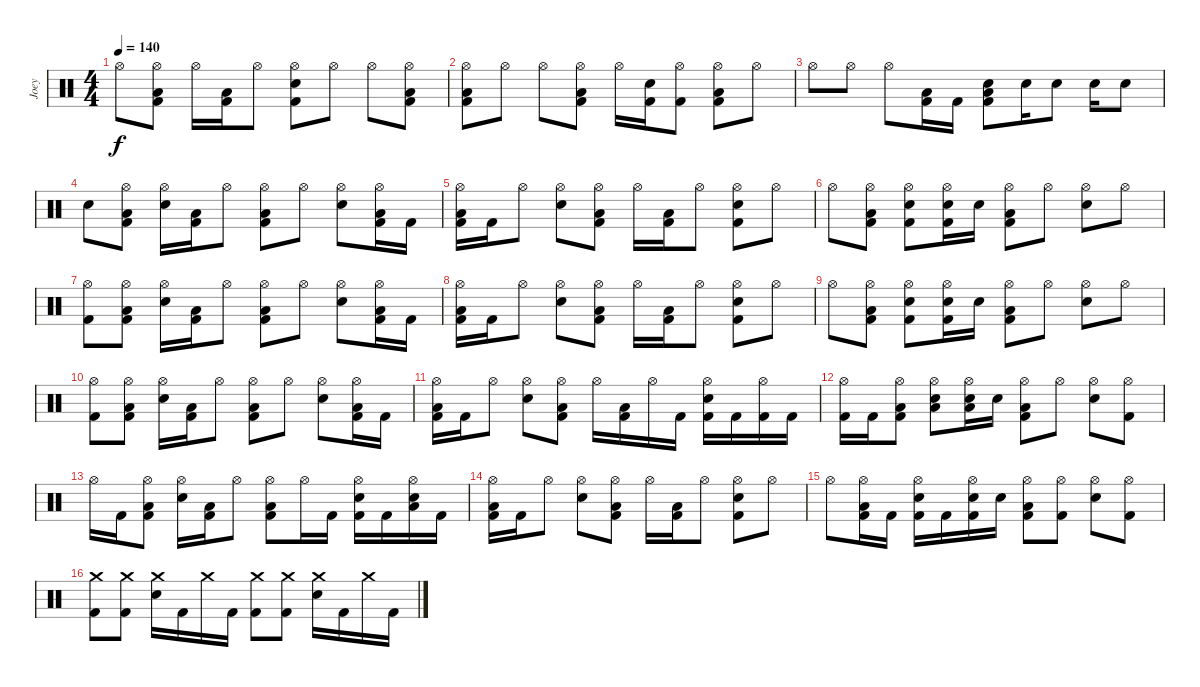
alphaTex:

\track ("Joey" "Joey") {instrument percussion}
\staff {score}
\articulation defaults
\ts (4 4)
\tempo 140
\clef neutral
\ks c "Hi-Hat (open)".8{dy f}
("Hi-Hat (open)" "Low Floor Tom (hit)" "Kick (hit) 2").8 "Hi-Hat (open)".16 ("Low Floor Tom (hit)" "Kick (hit) 2").16 "Hi-Hat (open)".8 ("Hi-Hat (open)" "Electric Snare (hit)" "Kick (hit) 2").8 "Hi-Hat (open)".8 "Hi-Hat (open)".8 ("Hi-Hat (open)" "Low Floor Tom (hit)" "Kick (hit) 2").8 |
("Hi-Hat (open)" "Low Floor Tom (hit)" "Kick (hit) 2").8 "Hi-Hat (open)".8 "Hi-Hat (open)".8 ("Hi-Hat (open)" "Low Floor Tom (hit)" "Kick (hit) 2").8 "Hi-Hat (open)".16 ("Electric Snare (hit)" "Kick (hit) 2").16 ("Hi-Hat (open)" "Kick (hit) 2").8 ("Hi-Hat (open)" "Low Floor Tom (hit)" "Kick (hit) 2").8 "Hi-Hat (open)".8 |
"Hi-Hat (open)".8 "Hi-Hat (open)".8 "Hi-Hat (open)".8 ("Low Floor Tom (hit)" "Kick (hit) 2").16 "Kick (hit) 2".16 ("Electric Snare (hit)" "Low Floor Tom (hit)" "Kick (hit) 2").8 "Electric Snare (hit)".16 "Electric Snare (hit)".8 "Electric Snare (hit)".16 "Electric Snare (hit)".8 |
"Electric Snare (hit)".8 ("Hi-Hat (open)" "Low Floor Tom (hit)" "Kick (hit) 2").8 ("Hi-Hat (open)" "Electric Snare (hit)").16 ("Low Floor Tom (hit)" "Kick (hit) 2").16 "Hi-Hat (open)".8 ("Hi-Hat (open)" "Low Floor Tom (hit)" "Kick (hit) 2").8 "Hi-Hat (open)".8 ("Hi-Hat (open)" "Electric Snare (hit)").8 ("Hi-Hat (open)" "Low Floor Tom (hit)" "Kick (hit) 2").16 "Kick (hit) 2".16 |
("Hi-Hat (open)" "Low Floor Tom (hit)" "Kick (hit) 2").16 "Kick (hit) 2".16 "Hi-Hat (open)".8 ("Hi-Hat (open)" "Electric Snare (hit)").8 ("Hi-Hat (open)" "Low Floor Tom (hit)" "Kick (hit) 2").8 "Hi-Hat (open)".16 ("Low Floor Tom (hit)" "Kick (hit) 2").16 "Hi-Hat (open)".8 ("Hi-Hat (open)" "Electric Snare (hit)" "Kick (hit) 2").8 "Hi-Hat (open)".8 |
"Hi-Hat (open)".8 ("Hi-Hat (open)" "Low Floor Tom (hit)" "Kick (hit) 2").8 ("Hi-Hat (open)" "Electric Snare (hit)" "Kick (hit) 2").8 ("Hi-Hat (open)" "Electric Snare (hit)" "Kick (hit) 2").16 "Electric Snare (hit)".16 ("Hi-Hat (open)" "Low Floor Tom (hit)" "Kick (hit) 2").8 "Hi-Hat (open)".8 ("Hi-Hat (open)" "Electric Snare (hit)").8 "Hi-Hat (open)".8 |
("Hi-Hat (open)" "Kick (hit) 2").8 ("Hi-Hat (open)" "Low Floor Tom (hit)" "Kick (hit) 2").8 ("Hi-Hat (open)" "Electric Snare (hit)").16 ("Low Floor Tom (hit)" "Kick (hit) 2").16 "Hi-Hat (open)".8 ("Hi-Hat (open)" "Low Floor Tom (hit)" "Kick (hit) 2").8 "Hi-Hat (open)".8 ("Hi-Hat (open)" "Electric Snare (hit)").8 ("Hi-Hat (open)" "Low Floor Tom (hit)" "Kick (hit) 2").16 "Kick (hit) 2".16 |
("Hi-Hat (open)" "Low Floor Tom (hit)" "Kick (hit) 2").16 "Kick (hit) 2".16 "Hi-Hat (open)".8 ("Hi-Hat (open)" "Electric Snare (hit)").8 ("Hi-Hat (open)" "Low Floor Tom (hit)" "Kick (hit) 2").8 "Hi-Hat (open)".16 ("Low Floor Tom (hit)" "Kick (hit) 2").16 "Hi-Hat (open)".8 ("Hi-Hat (open)" "Electric Snare (hit)" "Kick (hit) 2").8 "Hi-Hat (open)".8 |
"Hi-Hat (open)".8 ("Hi-Hat (open)" "Low Floor Tom (hit)" "Kick (hit) 2").8 ("Hi-Hat (open)" "Electric Snare (hit)" "Kick (hit) 2").8 ("Hi-Hat (open)" "Electric Snare (hit)" "Kick (hit) 2").16 "Electric Snare (hit)".16 ("Hi-Hat (open)" "Low Floor Tom (hit)" "Kick (hit) 2").8 "Hi-Hat (open)".8 ("Hi-Hat (open)" "Electric Snare (hit)").8 "Hi-Hat (open)".8 |
("Hi-Hat (open)" "Kick (hit) 2").8 ("Hi-Hat (open)" "Low Floor Tom (hit)" "Kick (hit) 2").8 ("Hi-Hat (open)" "Electric Snare (hit)").16 ("Low Floor Tom (hit)" "Kick (hit) 2").16 "Hi-Hat (open)".8 ("Hi-Hat (open)" "Low Floor Tom (hit)" "Kick (hit) 2").8 "Hi-Hat (open)".8 ("Hi-Hat (open)" "Electric Snare (hit)").8 ("Hi-Hat (open)" "Low Floor Tom (hit)" "Kick (hit) 2").16 "Kick (hit) 2".16 |
("Hi-Hat (open)" "Low Floor Tom (hit)" "Kick (hit) 2").16 "Kick (hit) 2".16 "Hi-Hat (open)".8 ("Hi-Hat (open)" "Electric Snare (hit)").8 ("Hi-Hat (open)" "Low Floor Tom (hit)" "Kick (hit) 2").8 "Hi-Hat (open)".16 ("Low Floor Tom (hit)" "Kick (hit) 2").16 "Hi-Hat (open)".16 "Kick (hit) 2".16 ("Hi-Hat (open)" "Electric Snare (hit)" "Kick (hit) 2").16 "Kick (hit) 2".16 ("Hi-Hat (open)" "Kick (hit) 2").16 "Kick (hit) 2".16 |
("Hi-Hat (open)" "Kick (hit) 2").16 "Kick (hit) 2".16 ("Hi-Hat (open)" "Low Floor Tom (hit)" "Kick (hit) 2").8 ("Hi-Hat (open)" "Electric Snare (hit)" "Low Floor Tom (hit)").8 ("Hi-Hat (open)" "Electric Snare (hit)" "Low Floor Tom (hit)").16 "Electric Snare (hit)".16 ("Hi-Hat (open)" "Low Floor Tom (hit)" "Kick (hit) 2").8 "Hi-Hat (open)".8 ("Hi-Hat (open)" "Electric Snare (hit)").8 ("Hi-Hat (open)" "Kick (hit) 2").8 |
"Hi-Hat (open)".16 "Kick (hit) 2".16 ("Hi-Hat (open)" "Low Floor Tom (hit)" "Kick (hit) 2").8 ("Hi-Hat (open)" "Electric Snare (hit)").16 ("Low Floor Tom (hit)" "Kick (hit) 2").16 "Hi-Hat (open)".8 ("Hi-Hat (open)" "Low Floor Tom (hit)" "Kick (hit) 2").8 "Hi-Hat (open)".16 "Kick (hit) 2".16 ("Hi-Hat (open)" "Electric Snare (hit)" "Kick (hit) 2").16 "Kick (hit) 2".16 ("Hi-Hat (open)" "Low Floor Tom (hit)" "Electric Snare (hit)").16 "Kick (hit) 2".16 |
("Hi-Hat (open)" "Low Floor Tom (hit)" "Kick (hit) 2").16 "Kick (hit) 2".16 "Hi-Hat (open)".8 ("Hi-Hat (open)" "Electric Snare (hit)").8 ("Hi-Hat (open)" "Low Floor Tom (hit)" "Kick (hit) 2").8 "Hi-Hat (open)".16 ("Low Floor Tom (hit)" "Kick (hit) 2").16 "Hi-Hat (open)".8 ("Hi-Hat (open)" "Electric Snare (hit)" "Kick (hit) 2").8 "Hi-Hat (open)".8 |
"Hi-Hat (open)".8 ("Hi-Hat (open)" "Low Floor Tom (hit)" "Kick (hit) 2").16 "Kick (hit) 2".16 ("Hi-Hat (open)" "Electric Snare (hit)" "Kick (hit) 2").16 "Kick (hit) 2".16 ("Hi-Hat (open)" "Electric Snare (hit)" "Kick (hit) 2").16 "Electric Snare (hit)".16 ("Hi-Hat (open)" "Low Floor Tom (hit)" "Kick (hit) 2").8 ("Hi-Hat (open)" "Kick (hit) 2").8 ("Hi-Hat (open)" "Electric Snare (hit)").8 ("Hi-Hat (open)" "Kick (hit) 2").8 |
("Crash medium (hit)" "Kick (hit) 2").8 ("Crash medium (hit)" "Kick (hit) 2").8 ("Crash medium (hit)" "Electric Snare (hit)").16 "Kick (hit) 2".16 "Crash medium (hit)".16 "Kick (hit) 2".16 ("Crash medium (hit)" "Kick (hit) 2").8 ("Crash medium (hit)" "Kick (hit) 2").8 ("Crash medium (hit)" "Electric Snare (hit)").16 "Kick (hit) 2".16 "Crash medium (hit)".16 "Kick (hit) 2".16
